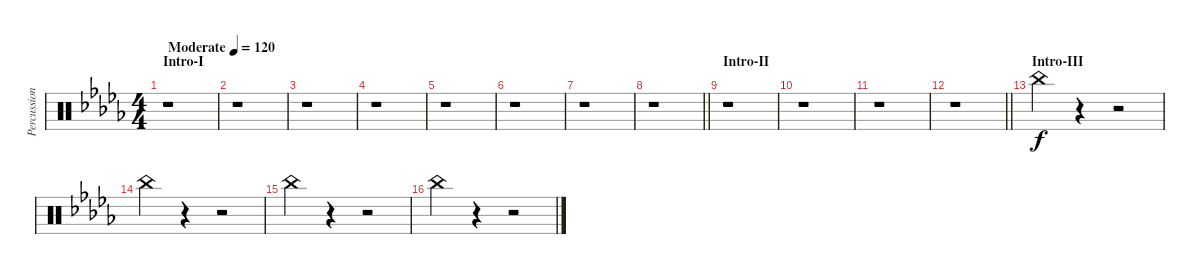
\track ("Percussion" "Percussion") {instrument percussion}
\staff {score}
\articulation defaults
\ts (4 4)
\section ("" "Intro-I")
\tempo (120 "Moderate")
\clef neutral
\ks db
r.1{dy f} |
r.1 |
r.1 |
r.1 |
r.1 |
r.1 |
r.1 |
\barLineRight lightlight
r.1 |
\section ("" "Intro-II")
r.1 |
r.1 |
r.1 |
\barLineRight lightlight
r.1 |
\section ("" "Intro-III")
"China (hit)".4 r.4 r.2 |
"China (hit)".4 r.4 r.2 |
"China (hit)".4 r.4 r.2 |
"China (hit)".4 r.4 r.2
